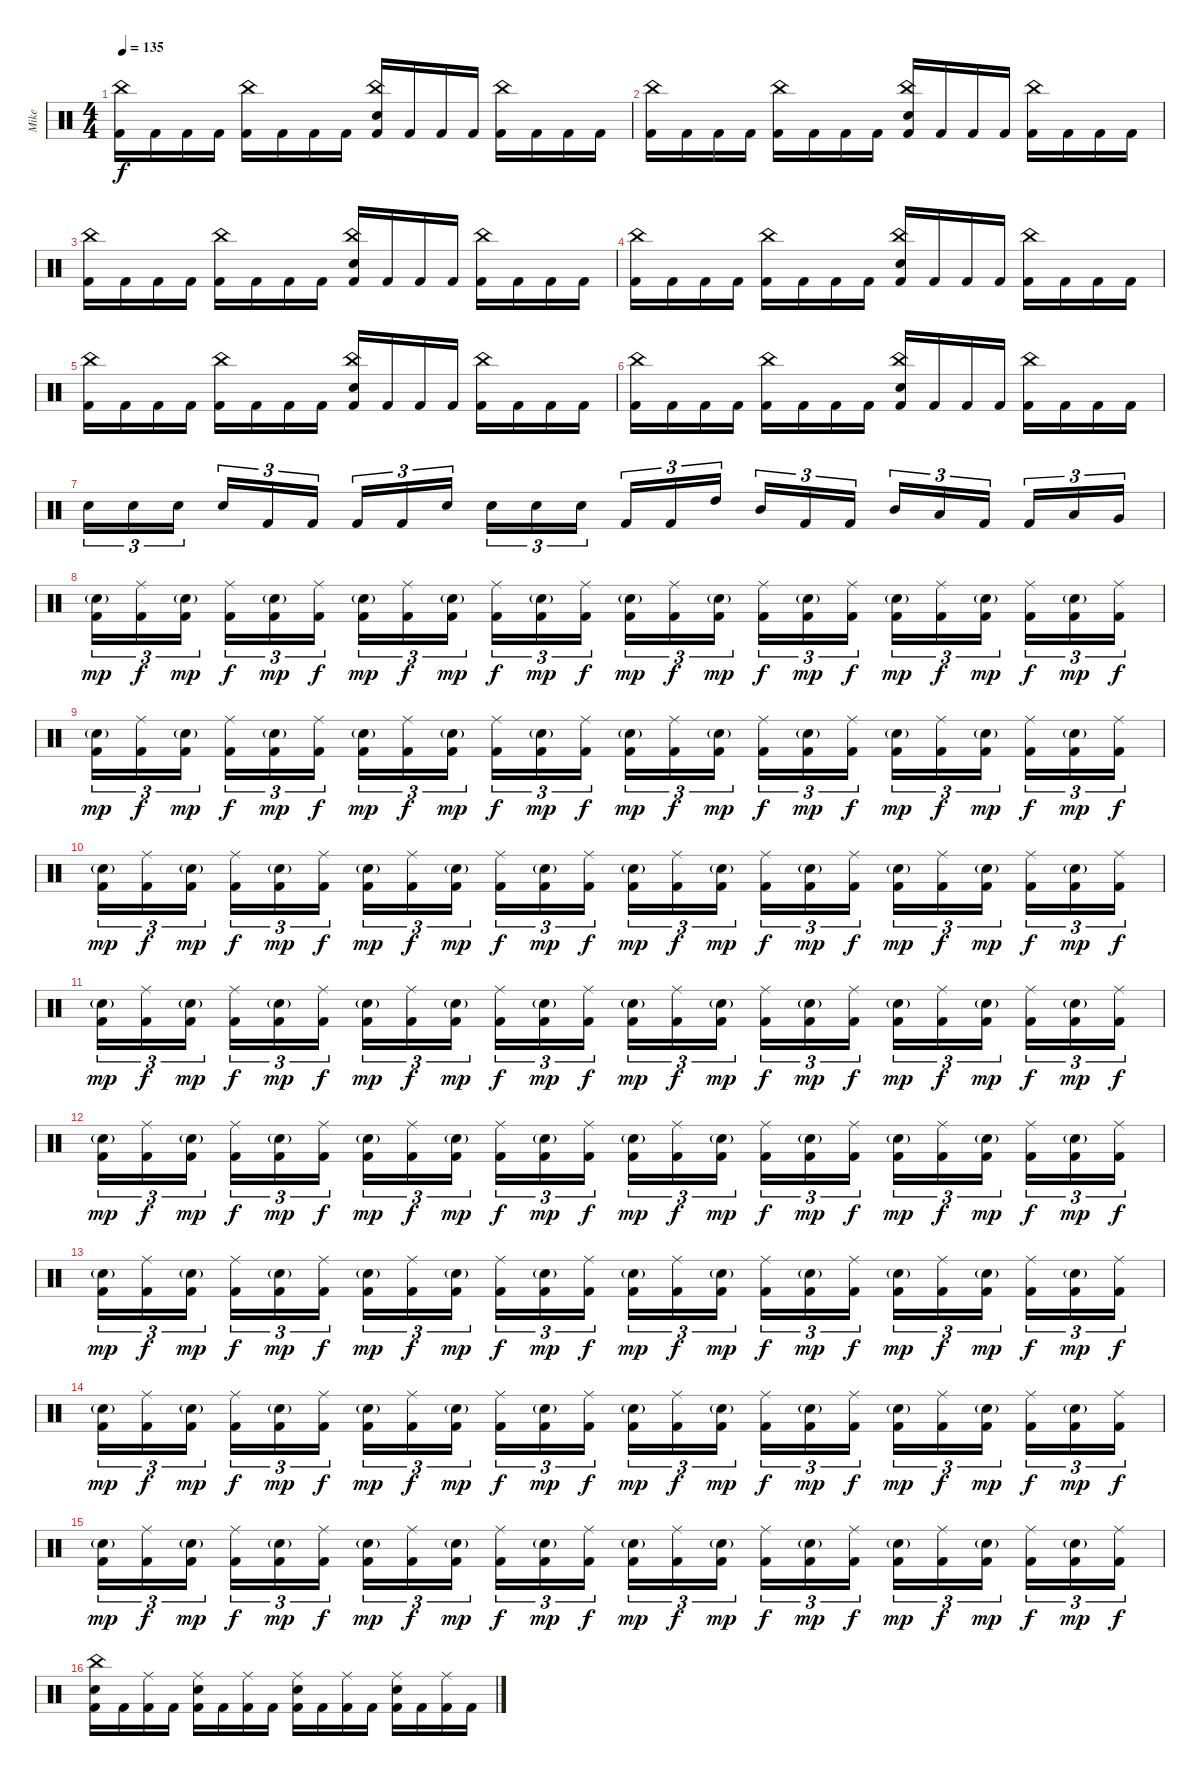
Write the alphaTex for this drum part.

\track ("Mike" "Mike") {instrument percussion}
\staff {score}
\articulation defaults
\ts (4 4)
\tempo 135
\clef neutral
\ks c
("Kick (hit) 2" "China (hit)").16{dy f} "Kick (hit) 2".16 "Kick (hit) 2".16 "Kick (hit) 2".16 ("Kick (hit) 2" "China (hit)").16 "Kick (hit) 2".16 "Kick (hit) 2".16 "Kick (hit) 2".16 ("Kick (hit) 2" "Electric Snare (hit)" "China (hit)").16 "Kick (hit) 2".16 "Kick (hit) 2".16 "Kick (hit) 2".16 ("Kick (hit) 2" "China (hit)").16 "Kick (hit) 2".16 "Kick (hit) 2".16 "Kick (hit) 2".16 |
("Kick (hit) 2" "China (hit)").16 "Kick (hit) 2".16 "Kick (hit) 2".16 "Kick (hit) 2".16 ("Kick (hit) 2" "China (hit)").16 "Kick (hit) 2".16 "Kick (hit) 2".16 "Kick (hit) 2".16 ("Kick (hit) 2" "Electric Snare (hit)" "China (hit)").16 "Kick (hit) 2".16 "Kick (hit) 2".16 "Kick (hit) 2".16 ("Kick (hit) 2" "China (hit)").16 "Kick (hit) 2".16 "Kick (hit) 2".16 "Kick (hit) 2".16 |
("Kick (hit) 2" "China (hit)").16 "Kick (hit) 2".16 "Kick (hit) 2".16 "Kick (hit) 2".16 ("Kick (hit) 2" "China (hit)").16 "Kick (hit) 2".16 "Kick (hit) 2".16 "Kick (hit) 2".16 ("Kick (hit) 2" "Electric Snare (hit)" "China (hit)").16 "Kick (hit) 2".16 "Kick (hit) 2".16 "Kick (hit) 2".16 ("Kick (hit) 2" "China (hit)").16 "Kick (hit) 2".16 "Kick (hit) 2".16 "Kick (hit) 2".16 |
("Kick (hit) 2" "China (hit)").16 "Kick (hit) 2".16 "Kick (hit) 2".16 "Kick (hit) 2".16 ("Kick (hit) 2" "China (hit)").16 "Kick (hit) 2".16 "Kick (hit) 2".16 "Kick (hit) 2".16 ("Kick (hit) 2" "Electric Snare (hit)" "China (hit)").16 "Kick (hit) 2".16 "Kick (hit) 2".16 "Kick (hit) 2".16 ("Kick (hit) 2" "China (hit)").16 "Kick (hit) 2".16 "Kick (hit) 2".16 "Kick (hit) 2".16 |
("Kick (hit) 2" "China (hit)").16 "Kick (hit) 2".16 "Kick (hit) 2".16 "Kick (hit) 2".16 ("Kick (hit) 2" "China (hit)").16 "Kick (hit) 2".16 "Kick (hit) 2".16 "Kick (hit) 2".16 ("Kick (hit) 2" "Electric Snare (hit)" "China (hit)").16 "Kick (hit) 2".16 "Kick (hit) 2".16 "Kick (hit) 2".16 ("Kick (hit) 2" "China (hit)").16 "Kick (hit) 2".16 "Kick (hit) 2".16 "Kick (hit) 2".16 |
("Kick (hit) 2" "China (hit)").16 "Kick (hit) 2".16 "Kick (hit) 2".16 "Kick (hit) 2".16 ("Kick (hit) 2" "China (hit)").16 "Kick (hit) 2".16 "Kick (hit) 2".16 "Kick (hit) 2".16 ("Kick (hit) 2" "Electric Snare (hit)" "China (hit)").16 "Kick (hit) 2".16 "Kick (hit) 2".16 "Kick (hit) 2".16 ("Kick (hit) 2" "China (hit)").16 "Kick (hit) 2".16 "Kick (hit) 2".16 "Kick (hit) 2".16 |
"Electric Snare (hit)".16{tu (3 2)} "Electric Snare (hit)".16{tu (3 2)} "Electric Snare (hit)".16{tu (3 2) beam splitsecondary} "Electric Snare (hit)".16{tu (3 2)} "Kick (hit) 2".16{tu (3 2)} "Kick (hit) 2".16{tu (3 2)} "Kick (hit) 2".16{tu (3 2)} "Kick (hit) 2".16{tu (3 2)} "Electric Snare (hit)".16{tu (3 2) beam splitsecondary} "Electric Snare (hit)".16{tu (3 2)} "Electric Snare (hit)".16{tu (3 2)} "Electric Snare (hit)".16{tu (3 2)} "Kick (hit) 2".16{tu (3 2)} "Kick (hit) 2".16{tu (3 2)} "High Tom (hit)".16{tu (3 2) beam splitsecondary} "Mid Tom (hit)".16{tu (3 2)} "Kick (hit) 2".16{tu (3 2)} "Kick (hit) 2".16{tu (3 2)} "Mid Tom (hit)".16{tu (3 2)} "Low Tom (hit)".16{tu (3 2)} "Kick (hit) 2".16{tu (3 2) beam splitsecondary} "Kick (hit) 2".16{tu (3 2)} "Low Tom (hit)".16{tu (3 2)} "Very Low Tom (hit)".16{tu (3 2)} |
("Kick (hit) 2" "Electric Snare (hit)"{g}).16{tu (3 2) dy mp} ("Kick (hit) 2" "Ride (middle)").16{tu (3 2) dy f} ("Kick (hit) 2" "Electric Snare (hit)"{g}).16{tu (3 2) dy mp beam splitsecondary} ("Kick (hit) 2" "Ride (middle)").16{tu (3 2) dy f} ("Kick (hit) 2" "Electric Snare (hit)"{g}).16{tu (3 2) dy mp} ("Kick (hit) 2" "Ride (middle)").16{tu (3 2) dy f} ("Kick (hit) 2" "Electric Snare (hit)"{g}).16{tu (3 2) dy mp} ("Kick (hit) 2" "Ride (middle)").16{tu (3 2) dy f} ("Kick (hit) 2" "Electric Snare (hit)"{g}).16{tu (3 2) dy mp beam splitsecondary} ("Kick (hit) 2" "Ride (middle)").16{tu (3 2) dy f} ("Kick (hit) 2" "Electric Snare (hit)"{g}).16{tu (3 2) dy mp} ("Kick (hit) 2" "Ride (middle)").16{tu (3 2) dy f} ("Kick (hit) 2" "Electric Snare (hit)"{g}).16{tu (3 2) dy mp} ("Kick (hit) 2" "Ride (middle)").16{tu (3 2) dy f} ("Kick (hit) 2" "Electric Snare (hit)"{g}).16{tu (3 2) dy mp beam splitsecondary} ("Kick (hit) 2" "Ride (middle)").16{tu (3 2) dy f} ("Kick (hit) 2" "Electric Snare (hit)"{g}).16{tu (3 2) dy mp} ("Kick (hit) 2" "Ride (middle)").16{tu (3 2) dy f} ("Kick (hit) 2" "Electric Snare (hit)"{g}).16{tu (3 2) dy mp} ("Kick (hit) 2" "Ride (middle)").16{tu (3 2) dy f} ("Kick (hit) 2" "Electric Snare (hit)"{g}).16{tu (3 2) dy mp beam splitsecondary} ("Kick (hit) 2" "Ride (middle)").16{tu (3 2) dy f} ("Kick (hit) 2" "Electric Snare (hit)"{g}).16{tu (3 2) dy mp} ("Kick (hit) 2" "Ride (middle)").16{tu (3 2) dy f} |
("Kick (hit) 2" "Electric Snare (hit)"{g}).16{tu (3 2) dy mp} ("Kick (hit) 2" "Ride (middle)").16{tu (3 2) dy f} ("Kick (hit) 2" "Electric Snare (hit)"{g}).16{tu (3 2) dy mp beam splitsecondary} ("Kick (hit) 2" "Ride (middle)").16{tu (3 2) dy f} ("Kick (hit) 2" "Electric Snare (hit)"{g}).16{tu (3 2) dy mp} ("Kick (hit) 2" "Ride (middle)").16{tu (3 2) dy f} ("Kick (hit) 2" "Electric Snare (hit)"{g}).16{tu (3 2) dy mp} ("Kick (hit) 2" "Ride (middle)").16{tu (3 2) dy f} ("Kick (hit) 2" "Electric Snare (hit)"{g}).16{tu (3 2) dy mp beam splitsecondary} ("Kick (hit) 2" "Ride (middle)").16{tu (3 2) dy f} ("Kick (hit) 2" "Electric Snare (hit)"{g}).16{tu (3 2) dy mp} ("Kick (hit) 2" "Ride (middle)").16{tu (3 2) dy f} ("Kick (hit) 2" "Electric Snare (hit)"{g}).16{tu (3 2) dy mp} ("Kick (hit) 2" "Ride (middle)").16{tu (3 2) dy f} ("Kick (hit) 2" "Electric Snare (hit)"{g}).16{tu (3 2) dy mp beam splitsecondary} ("Kick (hit) 2" "Ride (middle)").16{tu (3 2) dy f} ("Kick (hit) 2" "Electric Snare (hit)"{g}).16{tu (3 2) dy mp} ("Kick (hit) 2" "Ride (middle)").16{tu (3 2) dy f} ("Kick (hit) 2" "Electric Snare (hit)"{g}).16{tu (3 2) dy mp} ("Kick (hit) 2" "Ride (middle)").16{tu (3 2) dy f} ("Kick (hit) 2" "Electric Snare (hit)"{g}).16{tu (3 2) dy mp beam splitsecondary} ("Kick (hit) 2" "Ride (middle)").16{tu (3 2) dy f} ("Kick (hit) 2" "Electric Snare (hit)"{g}).16{tu (3 2) dy mp} ("Kick (hit) 2" "Ride (middle)").16{tu (3 2) dy f} |
("Kick (hit) 2" "Electric Snare (hit)"{g}).16{tu (3 2) dy mp} ("Kick (hit) 2" "Ride (middle)").16{tu (3 2) dy f} ("Kick (hit) 2" "Electric Snare (hit)"{g}).16{tu (3 2) dy mp beam splitsecondary} ("Kick (hit) 2" "Ride (middle)").16{tu (3 2) dy f} ("Kick (hit) 2" "Electric Snare (hit)"{g}).16{tu (3 2) dy mp} ("Kick (hit) 2" "Ride (middle)").16{tu (3 2) dy f} ("Kick (hit) 2" "Electric Snare (hit)"{g}).16{tu (3 2) dy mp} ("Kick (hit) 2" "Ride (middle)").16{tu (3 2) dy f} ("Kick (hit) 2" "Electric Snare (hit)"{g}).16{tu (3 2) dy mp beam splitsecondary} ("Kick (hit) 2" "Ride (middle)").16{tu (3 2) dy f} ("Kick (hit) 2" "Electric Snare (hit)"{g}).16{tu (3 2) dy mp} ("Kick (hit) 2" "Ride (middle)").16{tu (3 2) dy f} ("Kick (hit) 2" "Electric Snare (hit)"{g}).16{tu (3 2) dy mp} ("Kick (hit) 2" "Ride (middle)").16{tu (3 2) dy f} ("Kick (hit) 2" "Electric Snare (hit)"{g}).16{tu (3 2) dy mp beam splitsecondary} ("Kick (hit) 2" "Ride (middle)").16{tu (3 2) dy f} ("Kick (hit) 2" "Electric Snare (hit)"{g}).16{tu (3 2) dy mp} ("Kick (hit) 2" "Ride (middle)").16{tu (3 2) dy f} ("Kick (hit) 2" "Electric Snare (hit)"{g}).16{tu (3 2) dy mp} ("Kick (hit) 2" "Ride (middle)").16{tu (3 2) dy f} ("Kick (hit) 2" "Electric Snare (hit)"{g}).16{tu (3 2) dy mp beam splitsecondary} ("Kick (hit) 2" "Ride (middle)").16{tu (3 2) dy f} ("Kick (hit) 2" "Electric Snare (hit)"{g}).16{tu (3 2) dy mp} ("Kick (hit) 2" "Ride (middle)").16{tu (3 2) dy f} |
("Kick (hit) 2" "Electric Snare (hit)"{g}).16{tu (3 2) dy mp} ("Kick (hit) 2" "Ride (middle)").16{tu (3 2) dy f} ("Kick (hit) 2" "Electric Snare (hit)"{g}).16{tu (3 2) dy mp beam splitsecondary} ("Kick (hit) 2" "Ride (middle)").16{tu (3 2) dy f} ("Kick (hit) 2" "Electric Snare (hit)"{g}).16{tu (3 2) dy mp} ("Kick (hit) 2" "Ride (middle)").16{tu (3 2) dy f} ("Kick (hit) 2" "Electric Snare (hit)"{g}).16{tu (3 2) dy mp} ("Kick (hit) 2" "Ride (middle)").16{tu (3 2) dy f} ("Kick (hit) 2" "Electric Snare (hit)"{g}).16{tu (3 2) dy mp beam splitsecondary} ("Kick (hit) 2" "Ride (middle)").16{tu (3 2) dy f} ("Kick (hit) 2" "Electric Snare (hit)"{g}).16{tu (3 2) dy mp} ("Kick (hit) 2" "Ride (middle)").16{tu (3 2) dy f} ("Kick (hit) 2" "Electric Snare (hit)"{g}).16{tu (3 2) dy mp} ("Kick (hit) 2" "Ride (middle)").16{tu (3 2) dy f} ("Kick (hit) 2" "Electric Snare (hit)"{g}).16{tu (3 2) dy mp beam splitsecondary} ("Kick (hit) 2" "Ride (middle)").16{tu (3 2) dy f} ("Kick (hit) 2" "Electric Snare (hit)"{g}).16{tu (3 2) dy mp} ("Kick (hit) 2" "Ride (middle)").16{tu (3 2) dy f} ("Kick (hit) 2" "Electric Snare (hit)"{g}).16{tu (3 2) dy mp} ("Kick (hit) 2" "Ride (middle)").16{tu (3 2) dy f} ("Kick (hit) 2" "Electric Snare (hit)"{g}).16{tu (3 2) dy mp beam splitsecondary} ("Kick (hit) 2" "Ride (middle)").16{tu (3 2) dy f} ("Kick (hit) 2" "Electric Snare (hit)"{g}).16{tu (3 2) dy mp} ("Kick (hit) 2" "Ride (middle)").16{tu (3 2) dy f} |
("Kick (hit) 2" "Electric Snare (hit)"{g}).16{tu (3 2) dy mp} ("Kick (hit) 2" "Ride (middle)").16{tu (3 2) dy f} ("Kick (hit) 2" "Electric Snare (hit)"{g}).16{tu (3 2) dy mp beam splitsecondary} ("Kick (hit) 2" "Ride (middle)").16{tu (3 2) dy f} ("Kick (hit) 2" "Electric Snare (hit)"{g}).16{tu (3 2) dy mp} ("Kick (hit) 2" "Ride (middle)").16{tu (3 2) dy f} ("Kick (hit) 2" "Electric Snare (hit)"{g}).16{tu (3 2) dy mp} ("Kick (hit) 2" "Ride (middle)").16{tu (3 2) dy f} ("Kick (hit) 2" "Electric Snare (hit)"{g}).16{tu (3 2) dy mp beam splitsecondary} ("Kick (hit) 2" "Ride (middle)").16{tu (3 2) dy f} ("Kick (hit) 2" "Electric Snare (hit)"{g}).16{tu (3 2) dy mp} ("Kick (hit) 2" "Ride (middle)").16{tu (3 2) dy f} ("Kick (hit) 2" "Electric Snare (hit)"{g}).16{tu (3 2) dy mp} ("Kick (hit) 2" "Ride (middle)").16{tu (3 2) dy f} ("Kick (hit) 2" "Electric Snare (hit)"{g}).16{tu (3 2) dy mp beam splitsecondary} ("Kick (hit) 2" "Ride (middle)").16{tu (3 2) dy f} ("Kick (hit) 2" "Electric Snare (hit)"{g}).16{tu (3 2) dy mp} ("Kick (hit) 2" "Ride (middle)").16{tu (3 2) dy f} ("Kick (hit) 2" "Electric Snare (hit)"{g}).16{tu (3 2) dy mp} ("Kick (hit) 2" "Ride (middle)").16{tu (3 2) dy f} ("Kick (hit) 2" "Electric Snare (hit)"{g}).16{tu (3 2) dy mp beam splitsecondary} ("Kick (hit) 2" "Ride (middle)").16{tu (3 2) dy f} ("Kick (hit) 2" "Electric Snare (hit)"{g}).16{tu (3 2) dy mp} ("Kick (hit) 2" "Ride (middle)").16{tu (3 2) dy f} |
("Kick (hit) 2" "Electric Snare (hit)"{g}).16{tu (3 2) dy mp} ("Kick (hit) 2" "Ride (middle)").16{tu (3 2) dy f} ("Kick (hit) 2" "Electric Snare (hit)"{g}).16{tu (3 2) dy mp beam splitsecondary} ("Kick (hit) 2" "Ride (middle)").16{tu (3 2) dy f} ("Kick (hit) 2" "Electric Snare (hit)"{g}).16{tu (3 2) dy mp} ("Kick (hit) 2" "Ride (middle)").16{tu (3 2) dy f} ("Kick (hit) 2" "Electric Snare (hit)"{g}).16{tu (3 2) dy mp} ("Kick (hit) 2" "Ride (middle)").16{tu (3 2) dy f} ("Kick (hit) 2" "Electric Snare (hit)"{g}).16{tu (3 2) dy mp beam splitsecondary} ("Kick (hit) 2" "Ride (middle)").16{tu (3 2) dy f} ("Kick (hit) 2" "Electric Snare (hit)"{g}).16{tu (3 2) dy mp} ("Kick (hit) 2" "Ride (middle)").16{tu (3 2) dy f} ("Kick (hit) 2" "Electric Snare (hit)"{g}).16{tu (3 2) dy mp} ("Kick (hit) 2" "Ride (middle)").16{tu (3 2) dy f} ("Kick (hit) 2" "Electric Snare (hit)"{g}).16{tu (3 2) dy mp beam splitsecondary} ("Kick (hit) 2" "Ride (middle)").16{tu (3 2) dy f} ("Kick (hit) 2" "Electric Snare (hit)"{g}).16{tu (3 2) dy mp} ("Kick (hit) 2" "Ride (middle)").16{tu (3 2) dy f} ("Kick (hit) 2" "Electric Snare (hit)"{g}).16{tu (3 2) dy mp} ("Kick (hit) 2" "Ride (middle)").16{tu (3 2) dy f} ("Kick (hit) 2" "Electric Snare (hit)"{g}).16{tu (3 2) dy mp beam splitsecondary} ("Kick (hit) 2" "Ride (middle)").16{tu (3 2) dy f} ("Kick (hit) 2" "Electric Snare (hit)"{g}).16{tu (3 2) dy mp} ("Kick (hit) 2" "Ride (middle)").16{tu (3 2) dy f} |
("Kick (hit) 2" "Electric Snare (hit)"{g}).16{tu (3 2) dy mp} ("Kick (hit) 2" "Ride (middle)").16{tu (3 2) dy f} ("Kick (hit) 2" "Electric Snare (hit)"{g}).16{tu (3 2) dy mp beam splitsecondary} ("Kick (hit) 2" "Ride (middle)").16{tu (3 2) dy f} ("Kick (hit) 2" "Electric Snare (hit)"{g}).16{tu (3 2) dy mp} ("Kick (hit) 2" "Ride (middle)").16{tu (3 2) dy f} ("Kick (hit) 2" "Electric Snare (hit)"{g}).16{tu (3 2) dy mp} ("Kick (hit) 2" "Ride (middle)").16{tu (3 2) dy f} ("Kick (hit) 2" "Electric Snare (hit)"{g}).16{tu (3 2) dy mp beam splitsecondary} ("Kick (hit) 2" "Ride (middle)").16{tu (3 2) dy f} ("Kick (hit) 2" "Electric Snare (hit)"{g}).16{tu (3 2) dy mp} ("Kick (hit) 2" "Ride (middle)").16{tu (3 2) dy f} ("Kick (hit) 2" "Electric Snare (hit)"{g}).16{tu (3 2) dy mp} ("Kick (hit) 2" "Ride (middle)").16{tu (3 2) dy f} ("Kick (hit) 2" "Electric Snare (hit)"{g}).16{tu (3 2) dy mp beam splitsecondary} ("Kick (hit) 2" "Ride (middle)").16{tu (3 2) dy f} ("Kick (hit) 2" "Electric Snare (hit)"{g}).16{tu (3 2) dy mp} ("Kick (hit) 2" "Ride (middle)").16{tu (3 2) dy f} ("Kick (hit) 2" "Electric Snare (hit)"{g}).16{tu (3 2) dy mp} ("Kick (hit) 2" "Ride (middle)").16{tu (3 2) dy f} ("Kick (hit) 2" "Electric Snare (hit)"{g}).16{tu (3 2) dy mp beam splitsecondary} ("Kick (hit) 2" "Ride (middle)").16{tu (3 2) dy f} ("Kick (hit) 2" "Electric Snare (hit)"{g}).16{tu (3 2) dy mp} ("Kick (hit) 2" "Ride (middle)").16{tu (3 2) dy f} |
("Kick (hit) 2" "Electric Snare (hit)"{g}).16{tu (3 2) dy mp} ("Kick (hit) 2" "Ride (middle)").16{tu (3 2) dy f} ("Kick (hit) 2" "Electric Snare (hit)"{g}).16{tu (3 2) dy mp beam splitsecondary} ("Kick (hit) 2" "Ride (middle)").16{tu (3 2) dy f} ("Kick (hit) 2" "Electric Snare (hit)"{g}).16{tu (3 2) dy mp} ("Kick (hit) 2" "Ride (middle)").16{tu (3 2) dy f} ("Kick (hit) 2" "Electric Snare (hit)"{g}).16{tu (3 2) dy mp} ("Kick (hit) 2" "Ride (middle)").16{tu (3 2) dy f} ("Kick (hit) 2" "Electric Snare (hit)"{g}).16{tu (3 2) dy mp beam splitsecondary} ("Kick (hit) 2" "Ride (middle)").16{tu (3 2) dy f} ("Kick (hit) 2" "Electric Snare (hit)"{g}).16{tu (3 2) dy mp} ("Kick (hit) 2" "Ride (middle)").16{tu (3 2) dy f} ("Kick (hit) 2" "Electric Snare (hit)"{g}).16{tu (3 2) dy mp} ("Kick (hit) 2" "Ride (middle)").16{tu (3 2) dy f} ("Kick (hit) 2" "Electric Snare (hit)"{g}).16{tu (3 2) dy mp beam splitsecondary} ("Kick (hit) 2" "Ride (middle)").16{tu (3 2) dy f} ("Kick (hit) 2" "Electric Snare (hit)"{g}).16{tu (3 2) dy mp} ("Kick (hit) 2" "Ride (middle)").16{tu (3 2) dy f} ("Kick (hit) 2" "Electric Snare (hit)"{g}).16{tu (3 2) dy mp} ("Kick (hit) 2" "Ride (middle)").16{tu (3 2) dy f} ("Kick (hit) 2" "Electric Snare (hit)"{g}).16{tu (3 2) dy mp beam splitsecondary} ("Kick (hit) 2" "Ride (middle)").16{tu (3 2) dy f} ("Kick (hit) 2" "Electric Snare (hit)"{g}).16{tu (3 2) dy mp} ("Kick (hit) 2" "Ride (middle)").16{tu (3 2) dy f} |
("Kick (hit) 2" "Electric Snare (hit)" "China (hit)").16 "Kick (hit) 2".16 ("Kick (hit) 2" "Ride (middle)").16 "Kick (hit) 2".16 ("Kick (hit) 2" "Electric Snare (hit)" "Ride (middle)").16 "Kick (hit) 2".16 ("Kick (hit) 2" "Ride (middle)").16 "Kick (hit) 2".16 ("Kick (hit) 2" "Electric Snare (hit)" "Ride (middle)").16 "Kick (hit) 2".16 ("Kick (hit) 2" "Ride (middle)").16 "Kick (hit) 2".16 ("Kick (hit) 2" "Electric Snare (hit)" "Ride (middle)").16 "Kick (hit) 2".16 ("Kick (hit) 2" "Ride (middle)").16 "Kick (hit) 2".16
